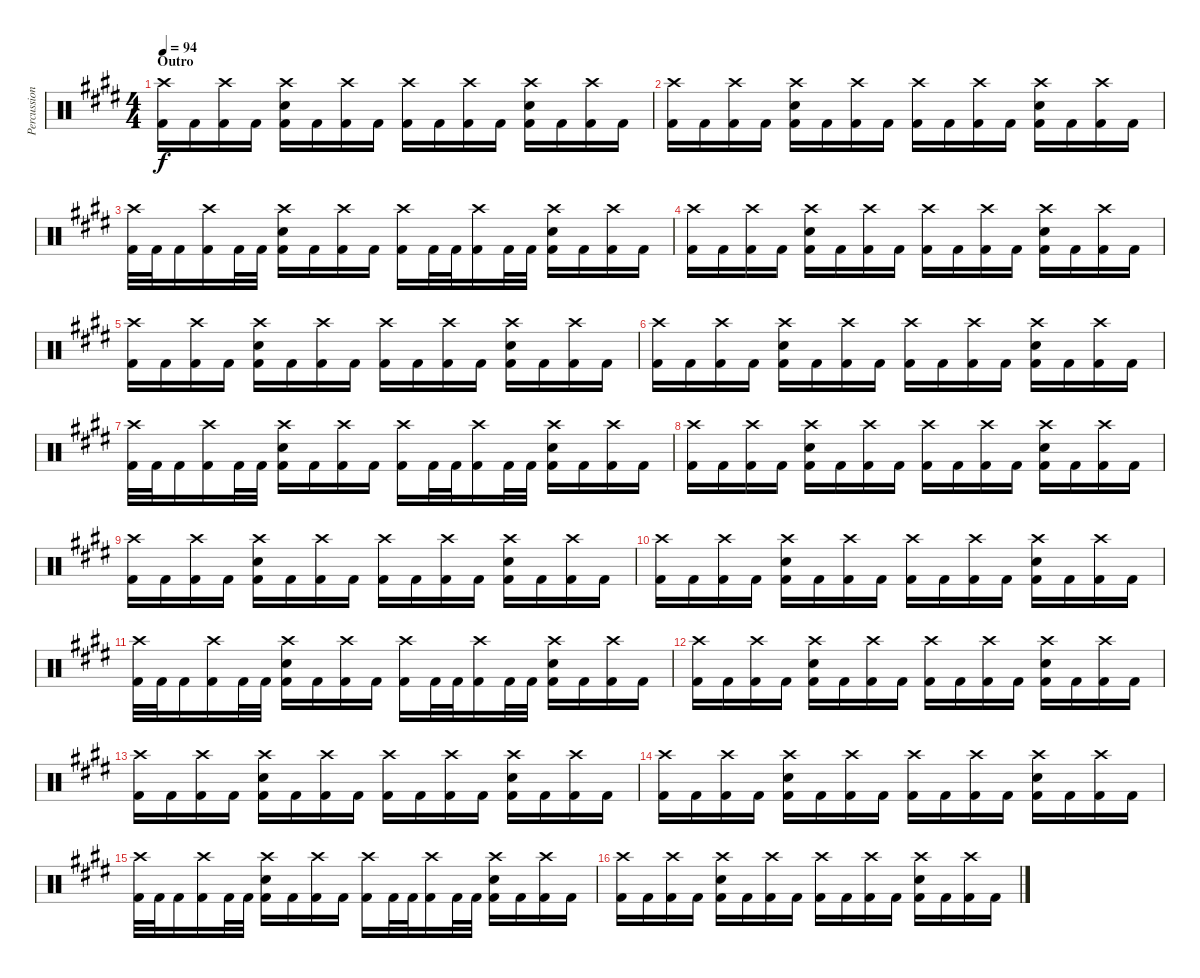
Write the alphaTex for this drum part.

\track ("Percussion" "Percussion") {instrument percussion}
\staff {score}
\articulation defaults
\ts (4 4)
\section ("" "Outro")
\tempo 94
\clef neutral
\ks e
("Crash high (hit)" "Kick (hit) 2").16{dy f} "Kick (hit) 2".16 ("Crash high (hit)" "Kick (hit) 2").16 "Kick (hit) 2".16 ("Crash high (hit)" "Snare (hit) 2" "Kick (hit) 2").16 "Kick (hit) 2".16 ("Crash high (hit)" "Kick (hit) 2").16 "Kick (hit) 2".16 ("Crash high (hit)" "Kick (hit) 2").16 "Kick (hit) 2".16 ("Crash high (hit)" "Kick (hit) 2").16 "Kick (hit) 2".16 ("Crash high (hit)" "Snare (hit) 2" "Kick (hit) 2").16 "Kick (hit) 2".16 ("Crash high (hit)" "Kick (hit) 2").16 "Kick (hit) 2".16 |
("Crash high (hit)" "Kick (hit) 2").16 "Kick (hit) 2".16 ("Crash high (hit)" "Kick (hit) 2").16 "Kick (hit) 2".16 ("Crash high (hit)" "Snare (hit) 2" "Kick (hit) 2").16 "Kick (hit) 2".16 ("Crash high (hit)" "Kick (hit) 2").16 "Kick (hit) 2".16 ("Crash high (hit)" "Kick (hit) 2").16 "Kick (hit) 2".16 ("Crash high (hit)" "Kick (hit) 2").16 "Kick (hit) 2".16 ("Crash high (hit)" "Snare (hit) 2" "Kick (hit) 2").16 "Kick (hit) 2".16 ("Crash high (hit)" "Kick (hit) 2").16 "Kick (hit) 2".16 |
("Crash high (hit)" "Kick (hit) 2").32 "Kick (hit) 2".32 "Kick (hit) 2".16 ("Crash high (hit)" "Kick (hit) 2").16 "Kick (hit) 2".32 "Kick (hit) 2".32 ("Crash high (hit)" "Snare (hit) 2" "Kick (hit) 2").16 "Kick (hit) 2".16 ("Crash high (hit)" "Kick (hit) 2").16 "Kick (hit) 2".16 ("Crash high (hit)" "Kick (hit) 2").16 "Kick (hit) 2".32 "Kick (hit) 2".32 ("Crash high (hit)" "Kick (hit) 2").16 "Kick (hit) 2".32 "Kick (hit) 2".32 ("Crash high (hit)" "Snare (hit) 2" "Kick (hit) 2").16 "Kick (hit) 2".16 ("Crash high (hit)" "Kick (hit) 2").16 "Kick (hit) 2".16 |
("Crash high (hit)" "Kick (hit) 2").16 "Kick (hit) 2".16 ("Crash high (hit)" "Kick (hit) 2").16 "Kick (hit) 2".16 ("Crash high (hit)" "Snare (hit) 2" "Kick (hit) 2").16 "Kick (hit) 2".16 ("Crash high (hit)" "Kick (hit) 2").16 "Kick (hit) 2".16 ("Crash high (hit)" "Kick (hit) 2").16 "Kick (hit) 2".16 ("Crash high (hit)" "Kick (hit) 2").16 "Kick (hit) 2".16 ("Crash high (hit)" "Snare (hit) 2" "Kick (hit) 2").16 "Kick (hit) 2".16 ("Crash high (hit)" "Kick (hit) 2").16 "Kick (hit) 2".16 |
("Crash high (hit)" "Kick (hit) 2").16{volume 8} "Kick (hit) 2".16 ("Crash high (hit)" "Kick (hit) 2").16 "Kick (hit) 2".16 ("Crash high (hit)" "Snare (hit) 2" "Kick (hit) 2").16 "Kick (hit) 2".16 ("Crash high (hit)" "Kick (hit) 2").16 "Kick (hit) 2".16 ("Crash high (hit)" "Kick (hit) 2").16 "Kick (hit) 2".16 ("Crash high (hit)" "Kick (hit) 2").16 "Kick (hit) 2".16 ("Crash high (hit)" "Snare (hit) 2" "Kick (hit) 2").16 "Kick (hit) 2".16 ("Crash high (hit)" "Kick (hit) 2").16 "Kick (hit) 2".16 |
("Crash high (hit)" "Kick (hit) 2").16 "Kick (hit) 2".16 ("Crash high (hit)" "Kick (hit) 2").16 "Kick (hit) 2".16 ("Crash high (hit)" "Snare (hit) 2" "Kick (hit) 2").16 "Kick (hit) 2".16 ("Crash high (hit)" "Kick (hit) 2").16 "Kick (hit) 2".16 ("Crash high (hit)" "Kick (hit) 2").16 "Kick (hit) 2".16 ("Crash high (hit)" "Kick (hit) 2").16 "Kick (hit) 2".16 ("Crash high (hit)" "Snare (hit) 2" "Kick (hit) 2").16 "Kick (hit) 2".16 ("Crash high (hit)" "Kick (hit) 2").16 "Kick (hit) 2".16 |
("Crash high (hit)" "Kick (hit) 2").32 "Kick (hit) 2".32 "Kick (hit) 2".16 ("Crash high (hit)" "Kick (hit) 2").16 "Kick (hit) 2".32 "Kick (hit) 2".32 ("Crash high (hit)" "Snare (hit) 2" "Kick (hit) 2").16 "Kick (hit) 2".16 ("Crash high (hit)" "Kick (hit) 2").16 "Kick (hit) 2".16 ("Crash high (hit)" "Kick (hit) 2").16 "Kick (hit) 2".32 "Kick (hit) 2".32 ("Crash high (hit)" "Kick (hit) 2").16 "Kick (hit) 2".32 "Kick (hit) 2".32 ("Crash high (hit)" "Snare (hit) 2" "Kick (hit) 2").16 "Kick (hit) 2".16 ("Crash high (hit)" "Kick (hit) 2").16 "Kick (hit) 2".16 |
("Crash high (hit)" "Kick (hit) 2").16 "Kick (hit) 2".16 ("Crash high (hit)" "Kick (hit) 2").16 "Kick (hit) 2".16 ("Crash high (hit)" "Snare (hit) 2" "Kick (hit) 2").16 "Kick (hit) 2".16 ("Crash high (hit)" "Kick (hit) 2").16 "Kick (hit) 2".16 ("Crash high (hit)" "Kick (hit) 2").16 "Kick (hit) 2".16 ("Crash high (hit)" "Kick (hit) 2").16 "Kick (hit) 2".16 ("Crash high (hit)" "Snare (hit) 2" "Kick (hit) 2").16 "Kick (hit) 2".16 ("Crash high (hit)" "Kick (hit) 2").16 "Kick (hit) 2".16 |
("Crash high (hit)" "Kick (hit) 2").16{volume 3} "Kick (hit) 2".16 ("Crash high (hit)" "Kick (hit) 2").16 "Kick (hit) 2".16 ("Crash high (hit)" "Snare (hit) 2" "Kick (hit) 2").16 "Kick (hit) 2".16 ("Crash high (hit)" "Kick (hit) 2").16 "Kick (hit) 2".16 ("Crash high (hit)" "Kick (hit) 2").16 "Kick (hit) 2".16 ("Crash high (hit)" "Kick (hit) 2").16 "Kick (hit) 2".16 ("Crash high (hit)" "Snare (hit) 2" "Kick (hit) 2").16 "Kick (hit) 2".16 ("Crash high (hit)" "Kick (hit) 2").16 "Kick (hit) 2".16 |
("Crash high (hit)" "Kick (hit) 2").16 "Kick (hit) 2".16 ("Crash high (hit)" "Kick (hit) 2").16 "Kick (hit) 2".16 ("Crash high (hit)" "Snare (hit) 2" "Kick (hit) 2").16 "Kick (hit) 2".16 ("Crash high (hit)" "Kick (hit) 2").16 "Kick (hit) 2".16 ("Crash high (hit)" "Kick (hit) 2").16 "Kick (hit) 2".16 ("Crash high (hit)" "Kick (hit) 2").16 "Kick (hit) 2".16 ("Crash high (hit)" "Snare (hit) 2" "Kick (hit) 2").16 "Kick (hit) 2".16 ("Crash high (hit)" "Kick (hit) 2").16 "Kick (hit) 2".16 |
("Crash high (hit)" "Kick (hit) 2").32 "Kick (hit) 2".32 "Kick (hit) 2".16 ("Crash high (hit)" "Kick (hit) 2").16 "Kick (hit) 2".32 "Kick (hit) 2".32 ("Crash high (hit)" "Snare (hit) 2" "Kick (hit) 2").16 "Kick (hit) 2".16 ("Crash high (hit)" "Kick (hit) 2").16 "Kick (hit) 2".16 ("Crash high (hit)" "Kick (hit) 2").16 "Kick (hit) 2".32 "Kick (hit) 2".32 ("Crash high (hit)" "Kick (hit) 2").16 "Kick (hit) 2".32 "Kick (hit) 2".32 ("Crash high (hit)" "Snare (hit) 2" "Kick (hit) 2").16 "Kick (hit) 2".16 ("Crash high (hit)" "Kick (hit) 2").16 "Kick (hit) 2".16 |
("Crash high (hit)" "Kick (hit) 2").16 "Kick (hit) 2".16 ("Crash high (hit)" "Kick (hit) 2").16 "Kick (hit) 2".16 ("Crash high (hit)" "Snare (hit) 2" "Kick (hit) 2").16 "Kick (hit) 2".16 ("Crash high (hit)" "Kick (hit) 2").16 "Kick (hit) 2".16 ("Crash high (hit)" "Kick (hit) 2").16 "Kick (hit) 2".16 ("Crash high (hit)" "Kick (hit) 2").16 "Kick (hit) 2".16 ("Crash high (hit)" "Snare (hit) 2" "Kick (hit) 2").16 "Kick (hit) 2".16 ("Crash high (hit)" "Kick (hit) 2").16 "Kick (hit) 2".16 |
("Crash high (hit)" "Kick (hit) 2").16{volume 0} "Kick (hit) 2".16 ("Crash high (hit)" "Kick (hit) 2").16 "Kick (hit) 2".16 ("Crash high (hit)" "Snare (hit) 2" "Kick (hit) 2").16 "Kick (hit) 2".16 ("Crash high (hit)" "Kick (hit) 2").16 "Kick (hit) 2".16 ("Crash high (hit)" "Kick (hit) 2").16 "Kick (hit) 2".16 ("Crash high (hit)" "Kick (hit) 2").16 "Kick (hit) 2".16 ("Crash high (hit)" "Snare (hit) 2" "Kick (hit) 2").16 "Kick (hit) 2".16 ("Crash high (hit)" "Kick (hit) 2").16 "Kick (hit) 2".16 |
("Crash high (hit)" "Kick (hit) 2").16 "Kick (hit) 2".16 ("Crash high (hit)" "Kick (hit) 2").16 "Kick (hit) 2".16 ("Crash high (hit)" "Snare (hit) 2" "Kick (hit) 2").16 "Kick (hit) 2".16 ("Crash high (hit)" "Kick (hit) 2").16 "Kick (hit) 2".16 ("Crash high (hit)" "Kick (hit) 2").16 "Kick (hit) 2".16 ("Crash high (hit)" "Kick (hit) 2").16 "Kick (hit) 2".16 ("Crash high (hit)" "Snare (hit) 2" "Kick (hit) 2").16 "Kick (hit) 2".16 ("Crash high (hit)" "Kick (hit) 2").16 "Kick (hit) 2".16 |
("Crash high (hit)" "Kick (hit) 2").32 "Kick (hit) 2".32 "Kick (hit) 2".16 ("Crash high (hit)" "Kick (hit) 2").16 "Kick (hit) 2".32 "Kick (hit) 2".32 ("Crash high (hit)" "Snare (hit) 2" "Kick (hit) 2").16 "Kick (hit) 2".16 ("Crash high (hit)" "Kick (hit) 2").16 "Kick (hit) 2".16 ("Crash high (hit)" "Kick (hit) 2").16 "Kick (hit) 2".32 "Kick (hit) 2".32 ("Crash high (hit)" "Kick (hit) 2").16 "Kick (hit) 2".32 "Kick (hit) 2".32 ("Crash high (hit)" "Snare (hit) 2" "Kick (hit) 2").16 "Kick (hit) 2".16 ("Crash high (hit)" "Kick (hit) 2").16 "Kick (hit) 2".16 |
("Crash high (hit)" "Kick (hit) 2").16 "Kick (hit) 2".16 ("Crash high (hit)" "Kick (hit) 2").16 "Kick (hit) 2".16 ("Crash high (hit)" "Snare (hit) 2" "Kick (hit) 2").16 "Kick (hit) 2".16 ("Crash high (hit)" "Kick (hit) 2").16 "Kick (hit) 2".16 ("Crash high (hit)" "Kick (hit) 2").16 "Kick (hit) 2".16 ("Crash high (hit)" "Kick (hit) 2").16 "Kick (hit) 2".16 ("Crash high (hit)" "Snare (hit) 2" "Kick (hit) 2").16 "Kick (hit) 2".16 ("Crash high (hit)" "Kick (hit) 2").16 "Kick (hit) 2".16
